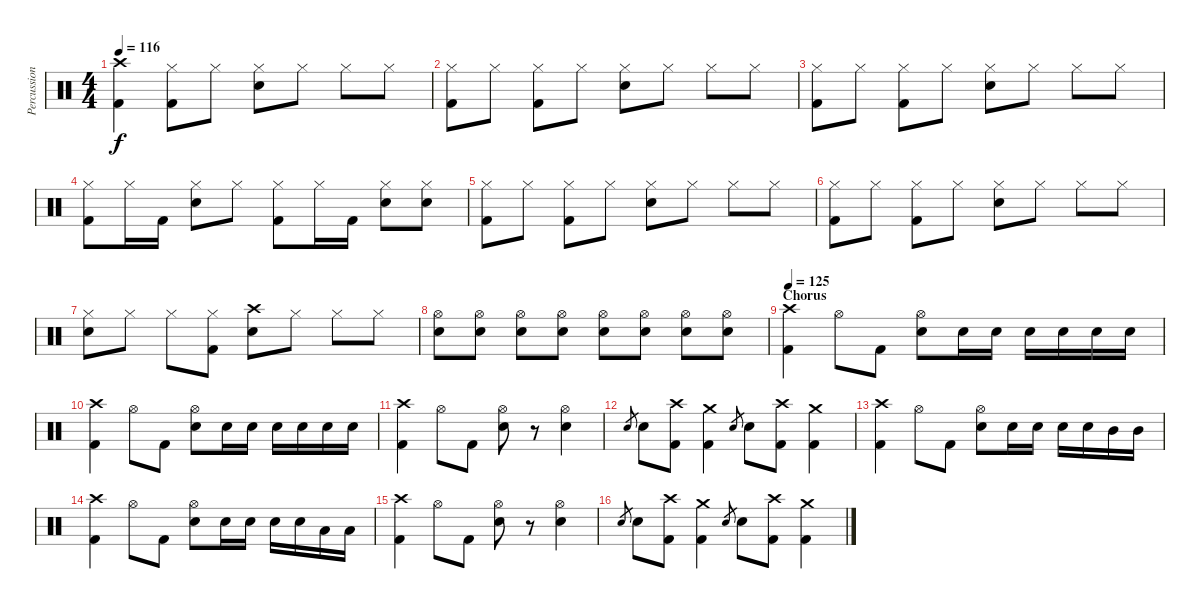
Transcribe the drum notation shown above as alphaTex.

\track ("Percussion" "Percussion") {instrument percussion}
\staff {score}
\articulation defaults
\ts (4 4)
\tempo 116
\clef neutral
\ks c
("Kick (hit) 2" "Crash high (hit)").4{dy f} ("Kick (hit) 2" "Hi-Hat (closed)").8 "Hi-Hat (closed)".8 ("Electric Snare (hit)" "Hi-Hat (closed)").8 "Hi-Hat (closed)".8 "Hi-Hat (closed)".8 "Hi-Hat (closed)".8 |
("Kick (hit) 2" "Hi-Hat (closed)").8 "Hi-Hat (closed)".8 ("Kick (hit) 2" "Hi-Hat (closed)").8 "Hi-Hat (closed)".8 ("Electric Snare (hit)" "Hi-Hat (closed)").8 "Hi-Hat (closed)".8 "Hi-Hat (closed)".8 "Hi-Hat (closed)".8 |
("Kick (hit) 2" "Hi-Hat (closed)").8 "Hi-Hat (closed)".8 ("Kick (hit) 2" "Hi-Hat (closed)").8 "Hi-Hat (closed)".8 ("Electric Snare (hit)" "Hi-Hat (closed)").8 "Hi-Hat (closed)".8 "Hi-Hat (closed)".8 "Hi-Hat (closed)".8 |
("Kick (hit) 2" "Hi-Hat (closed)").8 "Hi-Hat (closed)".16 "Kick (hit) 2".16 ("Electric Snare (hit)" "Hi-Hat (closed)").8 "Hi-Hat (closed)".8 ("Kick (hit) 2" "Hi-Hat (closed)").8 "Hi-Hat (closed)".16 "Kick (hit) 2".16 ("Electric Snare (hit)" "Hi-Hat (closed)").8 ("Electric Snare (hit)" "Hi-Hat (closed)").8 |
("Kick (hit) 2" "Hi-Hat (closed)").8 "Hi-Hat (closed)".8 ("Kick (hit) 2" "Hi-Hat (closed)").8 "Hi-Hat (closed)".8 ("Electric Snare (hit)" "Hi-Hat (closed)").8 "Hi-Hat (closed)".8 "Hi-Hat (closed)".8 "Hi-Hat (closed)".8 |
("Kick (hit) 2" "Hi-Hat (closed)").8 "Hi-Hat (closed)".8 ("Kick (hit) 2" "Hi-Hat (closed)").8 "Hi-Hat (closed)".8 ("Electric Snare (hit)" "Hi-Hat (closed)").8 "Hi-Hat (closed)".8 "Hi-Hat (closed)".8 "Hi-Hat (closed)".8 |
("Electric Snare (hit)" "Hi-Hat (closed)").8 "Hi-Hat (closed)".8 "Hi-Hat (closed)".8 ("Kick (hit) 2" "Hi-Hat (closed)").8 ("Electric Snare (hit)" "Crash high (hit)").8 "Hi-Hat (closed)".8 "Hi-Hat (closed)".8 "Hi-Hat (closed)".8 |
("Electric Snare (hit)" "Hi-Hat (open)").8 ("Electric Snare (hit)" "Hi-Hat (open)").8 ("Electric Snare (hit)" "Hi-Hat (open)").8 ("Electric Snare (hit)" "Hi-Hat (open)").8 ("Electric Snare (hit)" "Hi-Hat (open)").8 ("Electric Snare (hit)" "Hi-Hat (open)").8 ("Electric Snare (hit)" "Hi-Hat (open)").8 ("Electric Snare (hit)" "Hi-Hat (open)").8 |
\section ("" "Chorus")
\tempo 125
("Kick (hit) 2" "Crash high (hit)").4 "Hi-Hat (open)".8 "Kick (hit) 2".8 ("Electric Snare (hit)" "Hi-Hat (open)").8 "Electric Snare (hit)".16 "Electric Snare (hit)".16 "Electric Snare (hit)".16 "Electric Snare (hit)".16 "Electric Snare (hit)".16 "Electric Snare (hit)".16 |
("Kick (hit) 2" "Crash high (hit)").4 "Hi-Hat (open)".8 "Kick (hit) 2".8 ("Electric Snare (hit)" "Hi-Hat (open)").8 "Electric Snare (hit)".16 "Electric Snare (hit)".16 "Electric Snare (hit)".16 "Electric Snare (hit)".16 "Electric Snare (hit)".16 "Electric Snare (hit)".16 |
("Kick (hit) 2" "Crash high (hit)").4 "Hi-Hat (open)".8 "Kick (hit) 2".8 ("Electric Snare (hit)" "Hi-Hat (open)").8 r.8 ("Electric Snare (hit)" "Hi-Hat (open)").4 |
"Electric Snare (hit)".8{gr} "Electric Snare (hit)".8 ("Kick (hit) 2" "Crash high (hit)").8 ("Kick (hit) 2" "Crash medium (hit)").4 "Electric Snare (hit)".8{gr} "Electric Snare (hit)".8 ("Kick (hit) 2" "Crash high (hit)").8 ("Kick (hit) 2" "Crash medium (hit)").4 |
("Kick (hit) 2" "Crash high (hit)").4 "Hi-Hat (open)".8 "Kick (hit) 2".8 ("Electric Snare (hit)" "Hi-Hat (open)").8 "Electric Snare (hit)".16 "Electric Snare (hit)".16 "Electric Snare (hit)".16 "Electric Snare (hit)".16 "Mid Tom (hit)".16 "Mid Tom (hit)".16 |
("Kick (hit) 2" "Crash high (hit)").4 "Hi-Hat (open)".8 "Kick (hit) 2".8 ("Electric Snare (hit)" "Hi-Hat (open)").8 "Electric Snare (hit)".16 "Electric Snare (hit)".16 "Electric Snare (hit)".16 "Electric Snare (hit)".16 "Low Tom (hit)".16 "Low Tom (hit)".16 |
("Kick (hit) 2" "Crash high (hit)").4 "Hi-Hat (open)".8 "Kick (hit) 2".8 ("Electric Snare (hit)" "Hi-Hat (open)").8 r.8 ("Electric Snare (hit)" "Hi-Hat (open)").4 |
"Electric Snare (hit)".8{gr} "Electric Snare (hit)".8 ("Kick (hit) 2" "Crash high (hit)").8 ("Kick (hit) 2" "Crash medium (hit)").4 "Electric Snare (hit)".8{gr} "Electric Snare (hit)".8 ("Kick (hit) 2" "Crash high (hit)").8 ("Kick (hit) 2" "Crash medium (hit)").4
